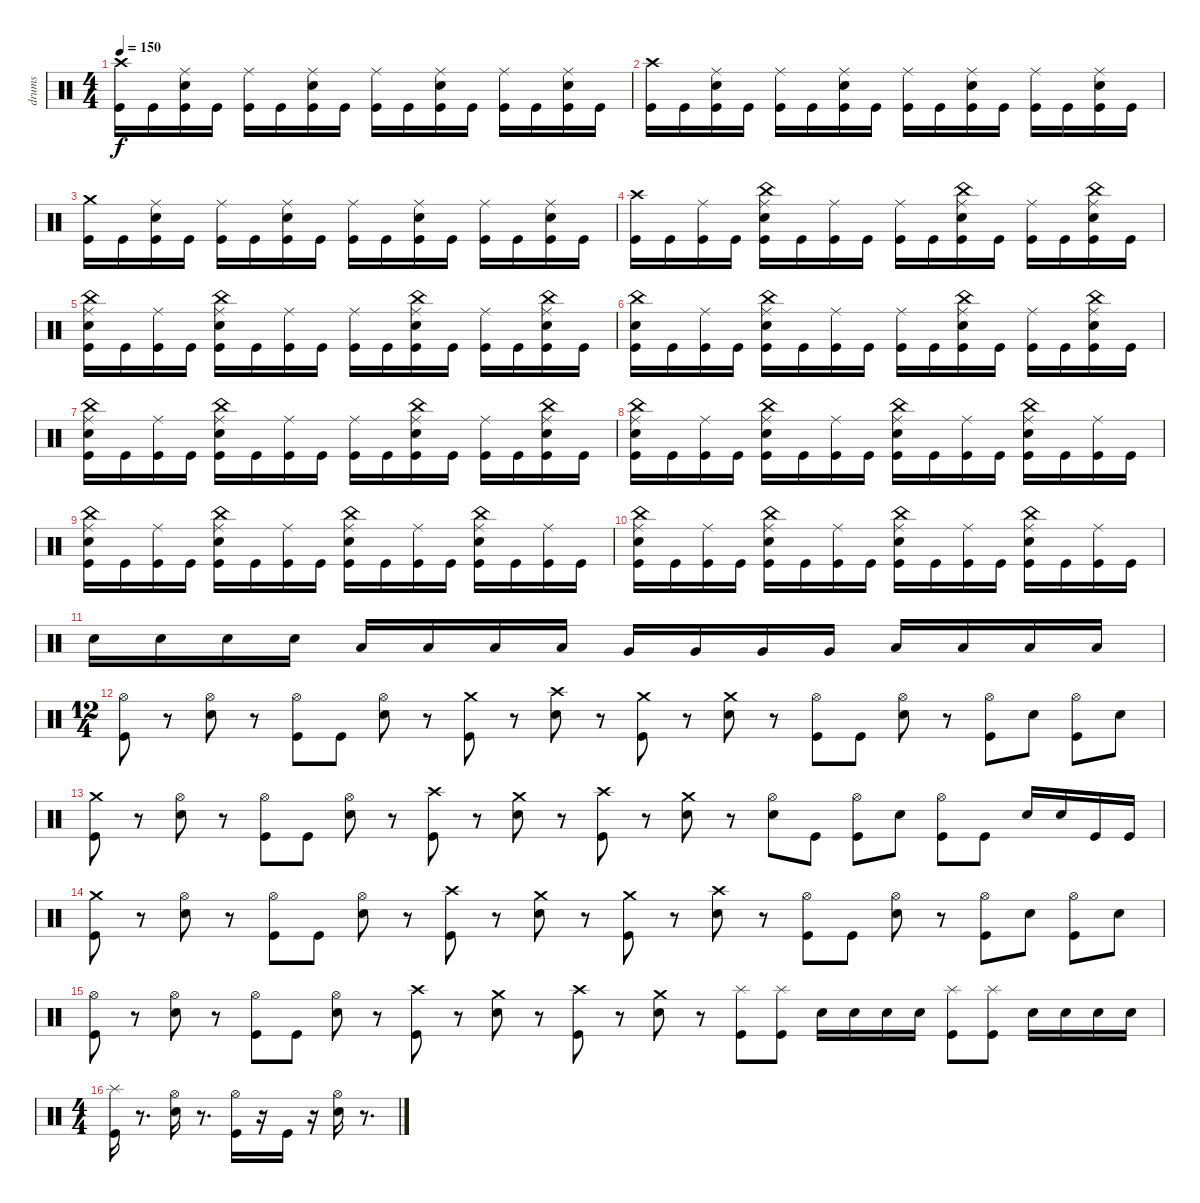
\track ("drums" "drums") {instrument percussion}
\staff {score}
\articulation defaults
\ts (4 4)
\tempo 150
\clef neutral
\ks c
("Crash high (hit)" "Kick (hit)").16{dy f} "Kick (hit)".16 ("Ride (middle)" "Electric Snare (hit)" "Kick (hit)").16 "Kick (hit)".16 ("Ride (middle)" "Kick (hit)").16 "Kick (hit)".16 ("Ride (middle)" "Electric Snare (hit)" "Kick (hit)").16 "Kick (hit)".16 ("Ride (middle)" "Kick (hit)").16 "Kick (hit)".16 ("Ride (middle)" "Electric Snare (hit)" "Kick (hit)").16 "Kick (hit)".16 ("Ride (middle)" "Kick (hit)").16 "Kick (hit)".16 ("Ride (middle)" "Electric Snare (hit)" "Kick (hit)").16 "Kick (hit)".16 |
("Crash high (hit)" "Kick (hit)").16 "Kick (hit)".16 ("Ride (middle)" "Electric Snare (hit)" "Kick (hit)").16 "Kick (hit)".16 ("Ride (middle)" "Kick (hit)").16 "Kick (hit)".16 ("Ride (middle)" "Electric Snare (hit)" "Kick (hit)").16 "Kick (hit)".16 ("Ride (middle)" "Kick (hit)").16 "Kick (hit)".16 ("Ride (middle)" "Electric Snare (hit)" "Kick (hit)").16 "Kick (hit)".16 ("Ride (middle)" "Kick (hit)").16 "Kick (hit)".16 ("Ride (middle)" "Electric Snare (hit)" "Kick (hit)").16 "Kick (hit)".16 |
("Crash medium (hit)" "Kick (hit)").16 "Kick (hit)".16 ("Ride (middle)" "Electric Snare (hit)" "Kick (hit)").16 "Kick (hit)".16 ("Ride (middle)" "Kick (hit)").16 "Kick (hit)".16 ("Ride (middle)" "Electric Snare (hit)" "Kick (hit)").16 "Kick (hit)".16 ("Ride (middle)" "Kick (hit)").16 "Kick (hit)".16 ("Ride (middle)" "Electric Snare (hit)" "Kick (hit)").16 "Kick (hit)".16 ("Ride (middle)" "Kick (hit)").16 "Kick (hit)".16 ("Ride (middle)" "Electric Snare (hit)" "Kick (hit)").16 "Kick (hit)".16 |
("Crash high (hit)" "Kick (hit)").16 "Kick (hit)".16 ("Ride (middle)" "Kick (hit)").16 "Kick (hit)".16 ("Snare (hit) 2" "China (hit)" "Ride (middle)" "Kick (hit)").16 "Kick (hit)".16 ("Ride (middle)" "Kick (hit)").16 "Kick (hit)".16 ("Ride (middle)" "Kick (hit)").16 "Kick (hit)".16 ("China (hit)" "Ride (middle)" "Electric Snare (hit)" "Kick (hit)").16 "Kick (hit)".16 ("Ride (middle)" "Kick (hit)").16 "Kick (hit)".16 ("China (hit)" "Ride (middle)" "Electric Snare (hit)" "Kick (hit)").16 "Kick (hit)".16 |
("China (hit)" "Electric Snare (hit)" "Ride (middle)" "Kick (hit)").16 "Kick (hit)".16 ("Ride (middle)" "Kick (hit)").16 "Kick (hit)".16 ("China (hit)" "Snare (hit) 2" "Ride (middle)" "Kick (hit)").16 "Kick (hit)".16 ("Ride (middle)" "Kick (hit)").16 "Kick (hit)".16 ("Ride (middle)" "Kick (hit)").16 "Kick (hit)".16 ("China (hit)" "Ride (middle)" "Electric Snare (hit)" "Kick (hit)").16 "Kick (hit)".16 ("Ride (middle)" "Kick (hit)").16 "Kick (hit)".16 ("China (hit)" "Ride (middle)" "Electric Snare (hit)" "Kick (hit)").16 "Kick (hit)".16 |
("China (hit)" "Snare (hit) 2" "Kick (hit)").16 "Kick (hit)".16 ("Ride (middle)" "Kick (hit)").16 "Kick (hit)".16 ("Snare (hit) 2" "China (hit)" "Ride (middle)" "Kick (hit)").16 "Kick (hit)".16 ("Ride (middle)" "Kick (hit)").16 "Kick (hit)".16 ("Ride (middle)" "Kick (hit)").16 "Kick (hit)".16 ("China (hit)" "Ride (middle)" "Electric Snare (hit)" "Kick (hit)").16 "Kick (hit)".16 ("Ride (middle)" "Kick (hit)").16 "Kick (hit)".16 ("China (hit)" "Ride (middle)" "Electric Snare (hit)" "Kick (hit)").16 "Kick (hit)".16 |
("China (hit)" "Electric Snare (hit)" "Ride (middle)" "Kick (hit)").16 "Kick (hit)".16 ("Ride (middle)" "Kick (hit)").16 "Kick (hit)".16 ("China (hit)" "Snare (hit) 2" "Ride (middle)" "Kick (hit)").16 "Kick (hit)".16 ("Ride (middle)" "Kick (hit)").16 "Kick (hit)".16 ("Ride (middle)" "Kick (hit)").16 "Kick (hit)".16 ("China (hit)" "Ride (middle)" "Electric Snare (hit)" "Kick (hit)").16 "Kick (hit)".16 ("Ride (middle)" "Kick (hit)").16 "Kick (hit)".16 ("China (hit)" "Ride (middle)" "Electric Snare (hit)" "Kick (hit)").16 "Kick (hit)".16 |
("China (hit)" "Electric Snare (hit)" "Ride (middle)" "Kick (hit)").16 "Kick (hit)".16 ("Ride (middle)" "Kick (hit)").16 "Kick (hit)".16 ("China (hit)" "Snare (hit) 2" "Ride (middle)" "Kick (hit)").16 "Kick (hit)".16 ("Ride (middle)" "Kick (hit)").16 "Kick (hit)".16 ("China (hit)" "Electric Snare (hit)" "Ride (middle)" "Kick (hit)").16 "Kick (hit)".16 ("Ride (middle)" "Kick (hit)").16 "Kick (hit)".16 ("Electric Snare (hit)" "China (hit)" "Ride (middle)" "Kick (hit)").16 "Kick (hit)".16 ("Ride (middle)" "Kick (hit)").16 "Kick (hit)".16 |
("China (hit)" "Electric Snare (hit)" "Ride (middle)" "Kick (hit)").16 "Kick (hit)".16 ("Ride (middle)" "Kick (hit)").16 "Kick (hit)".16 ("China (hit)" "Snare (hit) 2" "Ride (middle)" "Kick (hit)").16 "Kick (hit)".16 ("Ride (middle)" "Kick (hit)").16 "Kick (hit)".16 ("China (hit)" "Electric Snare (hit)" "Ride (middle)" "Kick (hit)").16 "Kick (hit)".16 ("Ride (middle)" "Kick (hit)").16 "Kick (hit)".16 ("Electric Snare (hit)" "China (hit)" "Ride (middle)" "Kick (hit)").16 "Kick (hit)".16 ("Ride (middle)" "Kick (hit)").16 "Kick (hit)".16 |
("China (hit)" "Electric Snare (hit)" "Ride (middle)" "Kick (hit)").16 "Kick (hit)".16 ("Ride (middle)" "Kick (hit)").16 "Kick (hit)".16 ("China (hit)" "Snare (hit) 2" "Ride (middle)" "Kick (hit)").16 "Kick (hit)".16 ("Ride (middle)" "Kick (hit)").16 "Kick (hit)".16 ("China (hit)" "Electric Snare (hit)" "Ride (middle)" "Kick (hit)").16 "Kick (hit)".16 ("Ride (middle)" "Kick (hit)").16 "Kick (hit)".16 ("Electric Snare (hit)" "China (hit)" "Ride (middle)" "Kick (hit)").16 "Kick (hit)".16 ("Ride (middle)" "Kick (hit)").16 "Kick (hit)".16 |
"Electric Snare (hit)".16 "Electric Snare (hit)".16 "Electric Snare (hit)".16 "Electric Snare (hit)".16 "Low Tom (hit)".16 "Low Tom (hit)".16 "Low Tom (hit)".16 "Low Tom (hit)".16 "Very Low Tom (hit)".16 "Very Low Tom (hit)".16 "Very Low Tom (hit)".16 "Very Low Tom (hit)".16 "Low Floor Tom (hit)".16 "Low Floor Tom (hit)".16 "Low Floor Tom (hit)".16 "Low Floor Tom (hit)".16 |
\ts (12 4)
("Hi-Hat (open)" "Kick (hit)").8 r.8 ("Hi-Hat (open)" "Electric Snare (hit)").8 r.8 ("Hi-Hat (open)" "Kick (hit)").8 "Kick (hit)".8 ("Hi-Hat (open)" "Electric Snare (hit)").8 r.8 ("Crash medium (hit)" "Kick (hit)").8 r.8 ("Crash high (hit)" "Electric Snare (hit)").8 r.8 ("Crash medium (hit)" "Kick (hit)").8 r.8 ("Crash medium (hit)" "Electric Snare (hit)").8 r.8 ("Hi-Hat (open)" "Kick (hit)").8 "Kick (hit)".8 ("Hi-Hat (open)" "Electric Snare (hit)").8 r.8 ("Hi-Hat (open)" "Kick (hit)").8 "Electric Snare (hit)".8 ("Hi-Hat (open)" "Kick (hit)").8 "Electric Snare (hit)".8 |
("Crash medium (hit)" "Kick (hit)").8 r.8 ("Hi-Hat (open)" "Electric Snare (hit)").8 r.8 ("Hi-Hat (open)" "Kick (hit)").8 "Kick (hit)".8 ("Hi-Hat (open)" "Electric Snare (hit)").8 r.8 ("Crash high (hit)" "Kick (hit)").8 r.8 ("Crash medium (hit)" "Electric Snare (hit)").8 r.8 ("Crash high (hit)" "Kick (hit)").8 r.8 ("Crash medium (hit)" "Electric Snare (hit)").8 r.8 ("Hi-Hat (open)" "Electric Snare (hit)").8 "Kick (hit)".8 ("Hi-Hat (open)" "Kick (hit)").8 "Electric Snare (hit)".8 ("Hi-Hat (open)" "Kick (hit)").8 "Kick (hit)".8 "Electric Snare (hit)".16 "Electric Snare (hit)".16 "Kick (hit)".16 "Kick (hit)".16 |
("Crash medium (hit)" "Kick (hit)").8 r.8 ("Hi-Hat (open)" "Electric Snare (hit)").8 r.8 ("Hi-Hat (open)" "Kick (hit)").8 "Kick (hit)".8 ("Hi-Hat (open)" "Electric Snare (hit)").8 r.8 ("Crash high (hit)" "Kick (hit)").8 r.8 ("Crash medium (hit)" "Electric Snare (hit)").8 r.8 ("Crash medium (hit)" "Kick (hit)").8 r.8 ("Crash high (hit)" "Electric Snare (hit)").8 r.8 ("Hi-Hat (open)" "Kick (hit)").8 "Kick (hit)".8 ("Hi-Hat (open)" "Electric Snare (hit)").8 r.8 ("Kick (hit)" "Hi-Hat (open)").8 "Electric Snare (hit)".8 ("Hi-Hat (open)" "Kick (hit)").8 "Electric Snare (hit)".8 |
("Hi-Hat (open)" "Kick (hit)").8 r.8 ("Hi-Hat (open)" "Electric Snare (hit)").8 r.8 ("Hi-Hat (open)" "Kick (hit)").8 "Kick (hit)".8 ("Hi-Hat (open)" "Electric Snare (hit)").8 r.8 ("Crash high (hit)" "Kick (hit)").8 r.8 ("Crash medium (hit)" "Electric Snare (hit)").8 r.8 ("Crash high (hit)" "Kick (hit)").8 r.8 ("Crash medium (hit)" "Electric Snare (hit)").8 r.8 ("Splash (hit)" "Kick (hit)").8 ("Splash (hit)" "Kick (hit)").8 "Electric Snare (hit)".16 "Electric Snare (hit)".16 "Electric Snare (hit)".16 "Electric Snare (hit)".16 ("Splash (hit)" "Kick (hit)").8 ("Splash (hit)" "Kick (hit)").8 "Electric Snare (hit)".16 "Electric Snare (hit)".16 "Snare (hit) 2".16 "Electric Snare (hit)".16 |
\ts (4 4)
("Splash (hit)" "Kick (hit)").16 r.8{d} ("Hi-Hat (open)" "Electric Snare (hit)").16 r.8{d} ("Hi-Hat (open)" "Kick (hit)").16 r.16 "Kick (hit)".16 r.16 ("Hi-Hat (open)" "Electric Snare (hit)").16 r.8{d}
